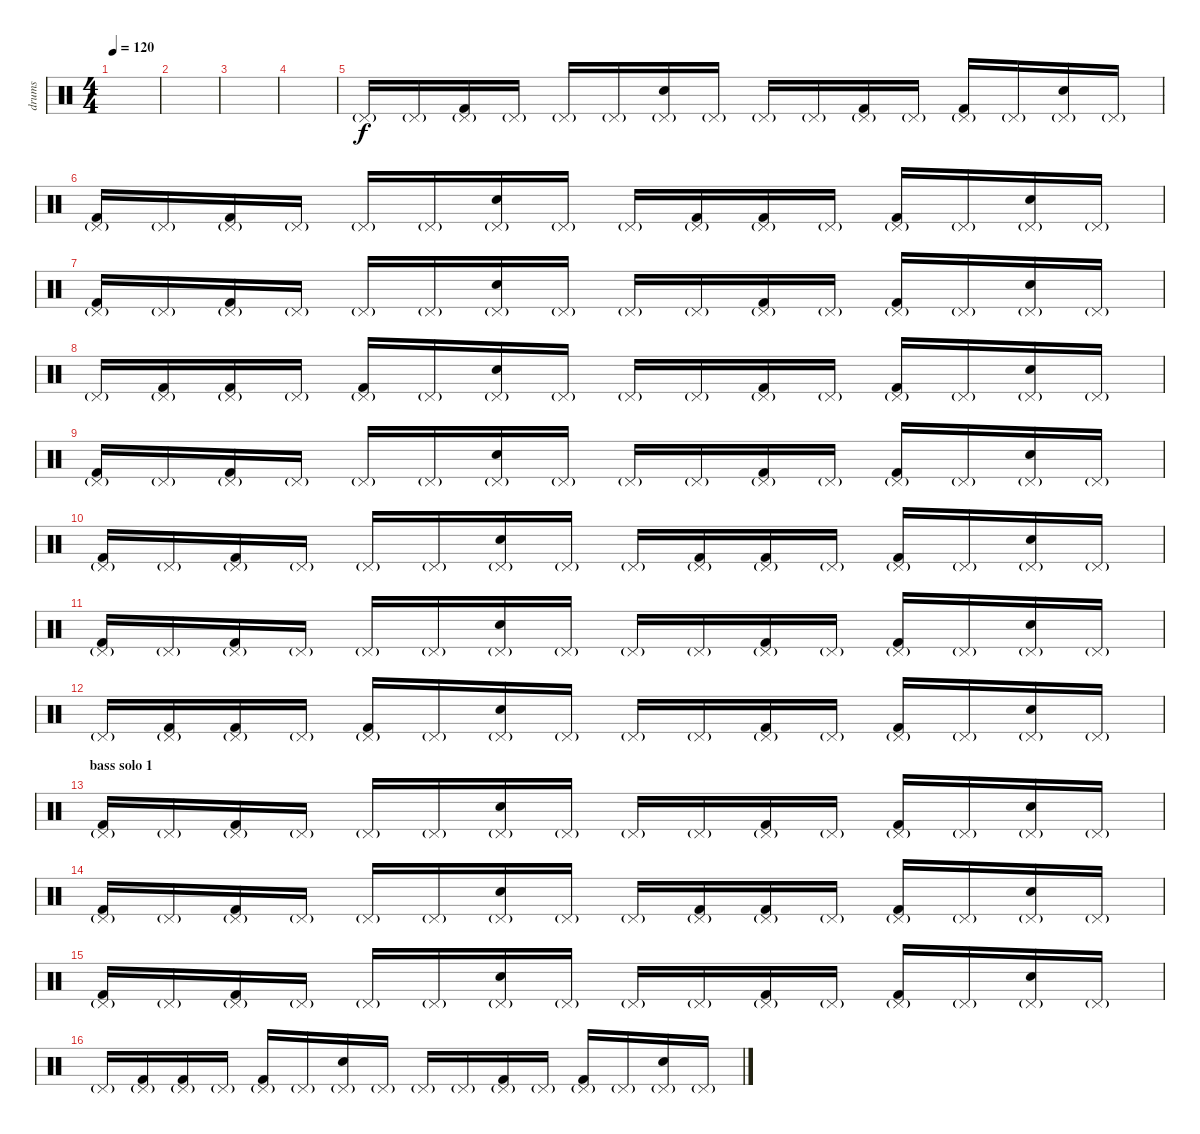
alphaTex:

\track ("drums" "drums") {instrument percussion}
\staff {score}
\articulation defaults
\ts (4 4)
\tempo 120
\clef neutral
\ks c
|
|
|
|
"Pedal Hi-Hat (hit)"{g}.16 "Pedal Hi-Hat (hit)"{g}.16 ("Kick (hit) 2" "Pedal Hi-Hat (hit)"{g}).16 "Pedal Hi-Hat (hit)"{g}.16 "Pedal Hi-Hat (hit)"{g}.16 "Pedal Hi-Hat (hit)"{g}.16 ("Hand Clap (hit)" "Pedal Hi-Hat (hit)"{g}).16 "Pedal Hi-Hat (hit)"{g}.16 "Pedal Hi-Hat (hit)"{g}.16 "Pedal Hi-Hat (hit)"{g}.16 ("Kick (hit) 2" "Pedal Hi-Hat (hit)"{g}).16 "Pedal Hi-Hat (hit)"{g}.16 ("Kick (hit) 2" "Pedal Hi-Hat (hit)"{g}).16 "Pedal Hi-Hat (hit)"{g}.16 ("Hand Clap (hit)" "Pedal Hi-Hat (hit)"{g}).16 "Pedal Hi-Hat (hit)"{g}.16 |
("Kick (hit) 2" "Pedal Hi-Hat (hit)"{g}).16 "Pedal Hi-Hat (hit)"{g}.16 ("Kick (hit) 2" "Pedal Hi-Hat (hit)"{g}).16 "Pedal Hi-Hat (hit)"{g}.16 "Pedal Hi-Hat (hit)"{g}.16 "Pedal Hi-Hat (hit)"{g}.16 ("Hand Clap (hit)" "Pedal Hi-Hat (hit)"{g}).16 "Pedal Hi-Hat (hit)"{g}.16 "Pedal Hi-Hat (hit)"{g}.16 ("Kick (hit) 2" "Pedal Hi-Hat (hit)"{g}).16 ("Kick (hit) 2" "Pedal Hi-Hat (hit)"{g}).16 "Pedal Hi-Hat (hit)"{g}.16 ("Kick (hit) 2" "Pedal Hi-Hat (hit)"{g}).16 "Pedal Hi-Hat (hit)"{g}.16 ("Hand Clap (hit)" "Pedal Hi-Hat (hit)"{g}).16 "Pedal Hi-Hat (hit)"{g}.16 |
("Kick (hit) 2" "Pedal Hi-Hat (hit)"{g}).16 "Pedal Hi-Hat (hit)"{g}.16 ("Kick (hit) 2" "Pedal Hi-Hat (hit)"{g}).16 "Pedal Hi-Hat (hit)"{g}.16 "Pedal Hi-Hat (hit)"{g}.16 "Pedal Hi-Hat (hit)"{g}.16 ("Hand Clap (hit)" "Pedal Hi-Hat (hit)"{g}).16 "Pedal Hi-Hat (hit)"{g}.16 "Pedal Hi-Hat (hit)"{g}.16 "Pedal Hi-Hat (hit)"{g}.16 ("Kick (hit) 2" "Pedal Hi-Hat (hit)"{g}).16 "Pedal Hi-Hat (hit)"{g}.16 ("Kick (hit) 2" "Pedal Hi-Hat (hit)"{g}).16 "Pedal Hi-Hat (hit)"{g}.16 ("Hand Clap (hit)" "Pedal Hi-Hat (hit)"{g}).16 "Pedal Hi-Hat (hit)"{g}.16 |
"Pedal Hi-Hat (hit)"{g}.16 ("Kick (hit) 2" "Pedal Hi-Hat (hit)"{g}).16 ("Kick (hit) 2" "Pedal Hi-Hat (hit)"{g}).16 "Pedal Hi-Hat (hit)"{g}.16 ("Kick (hit) 2" "Pedal Hi-Hat (hit)"{g}).16 "Pedal Hi-Hat (hit)"{g}.16 ("Hand Clap (hit)" "Pedal Hi-Hat (hit)"{g}).16 "Pedal Hi-Hat (hit)"{g}.16 "Pedal Hi-Hat (hit)"{g}.16 "Pedal Hi-Hat (hit)"{g}.16 ("Kick (hit) 2" "Pedal Hi-Hat (hit)"{g}).16 "Pedal Hi-Hat (hit)"{g}.16 ("Kick (hit) 2" "Pedal Hi-Hat (hit)"{g}).16 "Pedal Hi-Hat (hit)"{g}.16 ("Hand Clap (hit)" "Pedal Hi-Hat (hit)"{g}).16 "Pedal Hi-Hat (hit)"{g}.16 |
("Kick (hit) 2" "Pedal Hi-Hat (hit)"{g}).16 "Pedal Hi-Hat (hit)"{g}.16 ("Kick (hit) 2" "Pedal Hi-Hat (hit)"{g}).16 "Pedal Hi-Hat (hit)"{g}.16 "Pedal Hi-Hat (hit)"{g}.16 "Pedal Hi-Hat (hit)"{g}.16 ("Hand Clap (hit)" "Pedal Hi-Hat (hit)"{g}).16 "Pedal Hi-Hat (hit)"{g}.16 "Pedal Hi-Hat (hit)"{g}.16 "Pedal Hi-Hat (hit)"{g}.16 ("Kick (hit) 2" "Pedal Hi-Hat (hit)"{g}).16 "Pedal Hi-Hat (hit)"{g}.16 ("Kick (hit) 2" "Pedal Hi-Hat (hit)"{g}).16 "Pedal Hi-Hat (hit)"{g}.16 ("Hand Clap (hit)" "Pedal Hi-Hat (hit)"{g}).16 "Pedal Hi-Hat (hit)"{g}.16 |
("Kick (hit) 2" "Pedal Hi-Hat (hit)"{g}).16 "Pedal Hi-Hat (hit)"{g}.16 ("Kick (hit) 2" "Pedal Hi-Hat (hit)"{g}).16 "Pedal Hi-Hat (hit)"{g}.16 "Pedal Hi-Hat (hit)"{g}.16 "Pedal Hi-Hat (hit)"{g}.16 ("Hand Clap (hit)" "Pedal Hi-Hat (hit)"{g}).16 "Pedal Hi-Hat (hit)"{g}.16 "Pedal Hi-Hat (hit)"{g}.16 ("Kick (hit) 2" "Pedal Hi-Hat (hit)"{g}).16 ("Kick (hit) 2" "Pedal Hi-Hat (hit)"{g}).16 "Pedal Hi-Hat (hit)"{g}.16 ("Kick (hit) 2" "Pedal Hi-Hat (hit)"{g}).16 "Pedal Hi-Hat (hit)"{g}.16 ("Hand Clap (hit)" "Pedal Hi-Hat (hit)"{g}).16 "Pedal Hi-Hat (hit)"{g}.16 |
("Kick (hit) 2" "Pedal Hi-Hat (hit)"{g}).16 "Pedal Hi-Hat (hit)"{g}.16 ("Kick (hit) 2" "Pedal Hi-Hat (hit)"{g}).16 "Pedal Hi-Hat (hit)"{g}.16 "Pedal Hi-Hat (hit)"{g}.16 "Pedal Hi-Hat (hit)"{g}.16 ("Hand Clap (hit)" "Pedal Hi-Hat (hit)"{g}).16 "Pedal Hi-Hat (hit)"{g}.16 "Pedal Hi-Hat (hit)"{g}.16 "Pedal Hi-Hat (hit)"{g}.16 ("Kick (hit) 2" "Pedal Hi-Hat (hit)"{g}).16 "Pedal Hi-Hat (hit)"{g}.16 ("Kick (hit) 2" "Pedal Hi-Hat (hit)"{g}).16 "Pedal Hi-Hat (hit)"{g}.16 ("Hand Clap (hit)" "Pedal Hi-Hat (hit)"{g}).16 "Pedal Hi-Hat (hit)"{g}.16 |
"Pedal Hi-Hat (hit)"{g}.16 ("Kick (hit) 2" "Pedal Hi-Hat (hit)"{g}).16 ("Kick (hit) 2" "Pedal Hi-Hat (hit)"{g}).16 "Pedal Hi-Hat (hit)"{g}.16 ("Kick (hit) 2" "Pedal Hi-Hat (hit)"{g}).16 "Pedal Hi-Hat (hit)"{g}.16 ("Hand Clap (hit)" "Pedal Hi-Hat (hit)"{g}).16 "Pedal Hi-Hat (hit)"{g}.16 "Pedal Hi-Hat (hit)"{g}.16 "Pedal Hi-Hat (hit)"{g}.16 ("Kick (hit) 2" "Pedal Hi-Hat (hit)"{g}).16 "Pedal Hi-Hat (hit)"{g}.16 ("Kick (hit) 2" "Pedal Hi-Hat (hit)"{g}).16 "Pedal Hi-Hat (hit)"{g}.16 ("Hand Clap (hit)" "Pedal Hi-Hat (hit)"{g}).16 "Pedal Hi-Hat (hit)"{g}.16 |
\section ("" "bass solo 1")
("Kick (hit) 2" "Pedal Hi-Hat (hit)"{g}).16 "Pedal Hi-Hat (hit)"{g}.16 ("Kick (hit) 2" "Pedal Hi-Hat (hit)"{g}).16 "Pedal Hi-Hat (hit)"{g}.16 "Pedal Hi-Hat (hit)"{g}.16 "Pedal Hi-Hat (hit)"{g}.16 ("Hand Clap (hit)" "Pedal Hi-Hat (hit)"{g}).16 "Pedal Hi-Hat (hit)"{g}.16 "Pedal Hi-Hat (hit)"{g}.16 "Pedal Hi-Hat (hit)"{g}.16 ("Kick (hit) 2" "Pedal Hi-Hat (hit)"{g}).16 "Pedal Hi-Hat (hit)"{g}.16 ("Kick (hit) 2" "Pedal Hi-Hat (hit)"{g}).16 "Pedal Hi-Hat (hit)"{g}.16 ("Hand Clap (hit)" "Pedal Hi-Hat (hit)"{g}).16 "Pedal Hi-Hat (hit)"{g}.16 |
("Kick (hit) 2" "Pedal Hi-Hat (hit)"{g}).16 "Pedal Hi-Hat (hit)"{g}.16 ("Kick (hit) 2" "Pedal Hi-Hat (hit)"{g}).16 "Pedal Hi-Hat (hit)"{g}.16 "Pedal Hi-Hat (hit)"{g}.16 "Pedal Hi-Hat (hit)"{g}.16 ("Hand Clap (hit)" "Pedal Hi-Hat (hit)"{g}).16 "Pedal Hi-Hat (hit)"{g}.16 "Pedal Hi-Hat (hit)"{g}.16 ("Kick (hit) 2" "Pedal Hi-Hat (hit)"{g}).16 ("Kick (hit) 2" "Pedal Hi-Hat (hit)"{g}).16 "Pedal Hi-Hat (hit)"{g}.16 ("Kick (hit) 2" "Pedal Hi-Hat (hit)"{g}).16 "Pedal Hi-Hat (hit)"{g}.16 ("Hand Clap (hit)" "Pedal Hi-Hat (hit)"{g}).16 "Pedal Hi-Hat (hit)"{g}.16 |
("Kick (hit) 2" "Pedal Hi-Hat (hit)"{g}).16 "Pedal Hi-Hat (hit)"{g}.16 ("Kick (hit) 2" "Pedal Hi-Hat (hit)"{g}).16 "Pedal Hi-Hat (hit)"{g}.16 "Pedal Hi-Hat (hit)"{g}.16 "Pedal Hi-Hat (hit)"{g}.16 ("Hand Clap (hit)" "Pedal Hi-Hat (hit)"{g}).16 "Pedal Hi-Hat (hit)"{g}.16 "Pedal Hi-Hat (hit)"{g}.16 "Pedal Hi-Hat (hit)"{g}.16 ("Kick (hit) 2" "Pedal Hi-Hat (hit)"{g}).16 "Pedal Hi-Hat (hit)"{g}.16 ("Kick (hit) 2" "Pedal Hi-Hat (hit)"{g}).16 "Pedal Hi-Hat (hit)"{g}.16 ("Hand Clap (hit)" "Pedal Hi-Hat (hit)"{g}).16 "Pedal Hi-Hat (hit)"{g}.16 |
"Pedal Hi-Hat (hit)"{g}.16 ("Kick (hit) 2" "Pedal Hi-Hat (hit)"{g}).16 ("Kick (hit) 2" "Pedal Hi-Hat (hit)"{g}).16 "Pedal Hi-Hat (hit)"{g}.16 ("Kick (hit) 2" "Pedal Hi-Hat (hit)"{g}).16 "Pedal Hi-Hat (hit)"{g}.16 ("Hand Clap (hit)" "Pedal Hi-Hat (hit)"{g}).16 "Pedal Hi-Hat (hit)"{g}.16 "Pedal Hi-Hat (hit)"{g}.16 "Pedal Hi-Hat (hit)"{g}.16 ("Kick (hit) 2" "Pedal Hi-Hat (hit)"{g}).16 "Pedal Hi-Hat (hit)"{g}.16 ("Kick (hit) 2" "Pedal Hi-Hat (hit)"{g}).16 "Pedal Hi-Hat (hit)"{g}.16 ("Hand Clap (hit)" "Pedal Hi-Hat (hit)"{g}).16 "Pedal Hi-Hat (hit)"{g}.16
